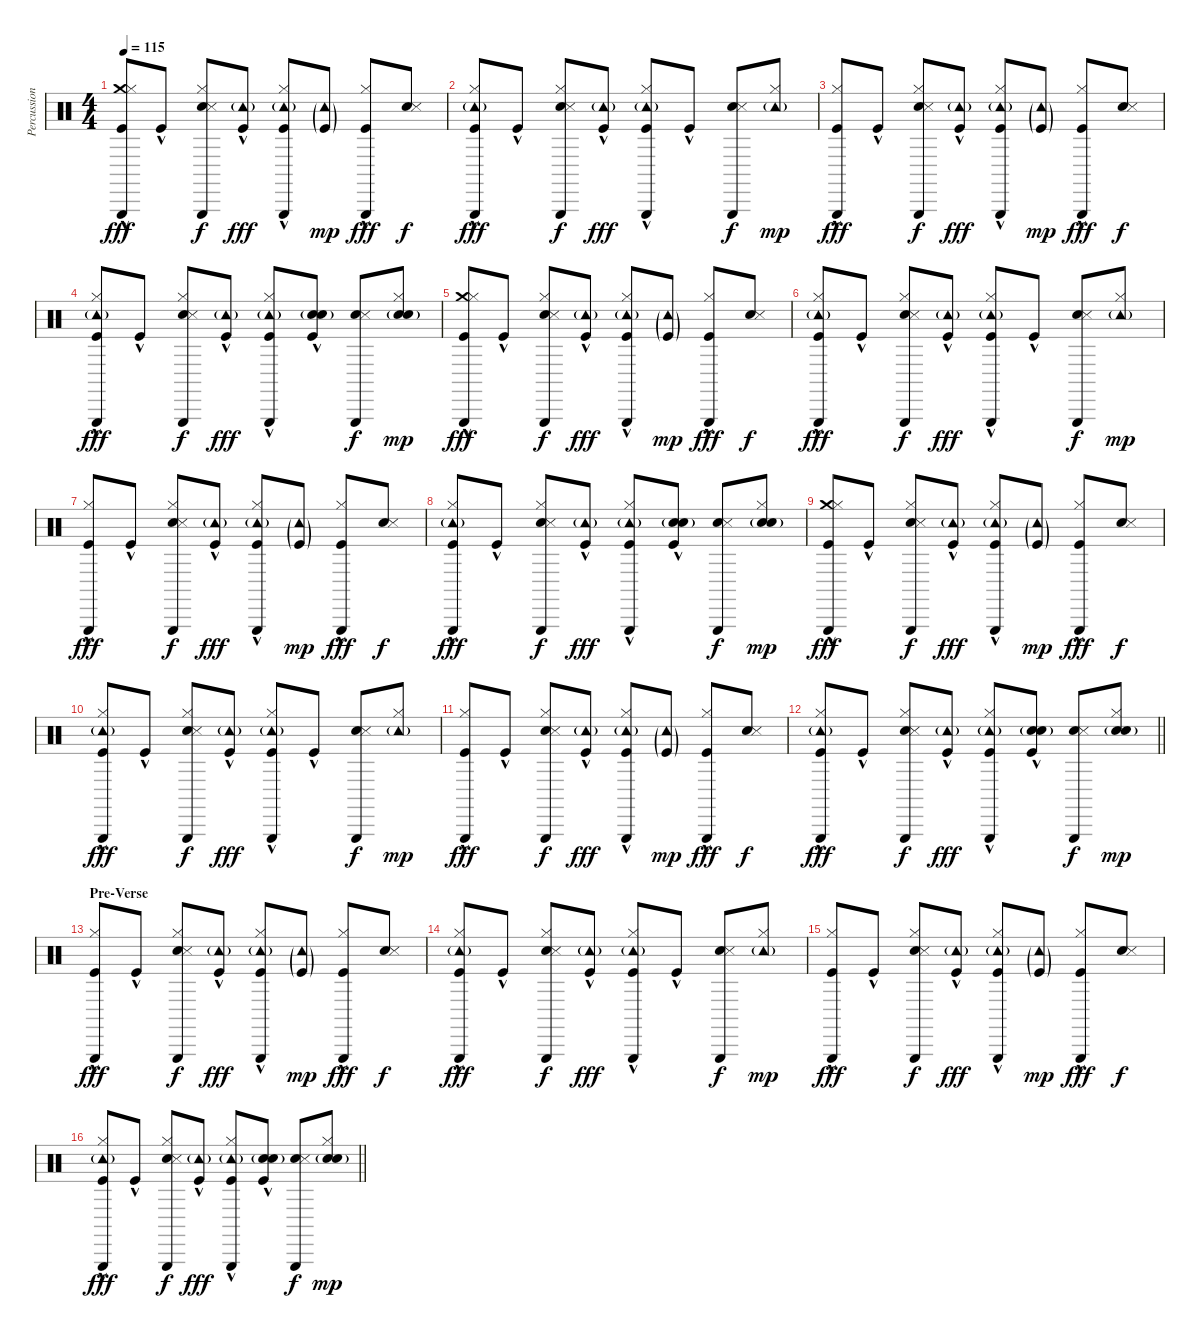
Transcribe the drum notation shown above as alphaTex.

\track ("Percussion" "Percussion") {instrument percussion}
\staff {score}
\articulation defaults
\ts (4 4)
\tempo 115
\clef neutral
\ks c
("Triangle (hit)" "Crash medium (hit)" "Hi-Hat (closed)" "Kick (hit)"{hac}).8{dy fff} "Kick (hit)"{hac}.8 ("Hand Clap (hit)" "Snare (side stick) 3" "Hi-Hat (closed)" "Triangle (hit)").8{dy f} ("Tambourine (hit)"{g} "Kick (hit)"{hac}).8{dy fff} ("Triangle (hit)" "Hi-Hat (closed)" "Tambourine (hit)"{g} "Kick (hit)"{hac}).8 ("Tambourine (hit)"{g} "Kick (hit)"{g}).8{dy mp} ("Triangle (hit)" "Hi-Hat (closed)" "Kick (hit)"{hac}).8{dy fff} ("Hand Clap (hit)" "Snare (side stick) 3").8{dy f} |
("Triangle (hit)" "Hi-Hat (closed)" "Tambourine (hit)"{g} "Kick (hit)"{hac}).8{dy fff} "Kick (hit)"{hac}.8 ("Hand Clap (hit)" "Snare (side stick) 3" "Hi-Hat (closed)" "Triangle (hit)").8{dy f} ("Tambourine (hit)"{g} "Kick (hit)"{hac}).8{dy fff} ("Triangle (hit)" "Hi-Hat (closed)" "Tambourine (hit)"{g} "Kick (hit)"{hac}).8 "Kick (hit)"{hac}.8 ("Hand Clap (hit)" "Snare (side stick) 3" "Triangle (hit)").8{dy f} ("Hi-Hat (closed)" "Tambourine (hit)"{g}).8{dy mp} |
("Triangle (hit)" "Hi-Hat (closed)" "Kick (hit)"{hac}).8{dy fff} "Kick (hit)"{hac}.8 ("Hand Clap (hit)" "Snare (side stick) 3" "Hi-Hat (closed)" "Triangle (hit)").8{dy f} ("Tambourine (hit)"{g} "Kick (hit)"{hac}).8{dy fff} ("Triangle (hit)" "Hi-Hat (closed)" "Tambourine (hit)"{g} "Kick (hit)"{hac}).8 ("Tambourine (hit)"{g} "Kick (hit)"{g}).8{dy mp} ("Triangle (hit)" "Hi-Hat (closed)" "Kick (hit)"{hac}).8{dy fff} ("Hand Clap (hit)" "Snare (side stick) 3").8{dy f} |
("Triangle (hit)" "Hi-Hat (closed)" "Tambourine (hit)"{g} "Kick (hit)"{hac}).8{dy fff} "Kick (hit)"{hac}.8 ("Hand Clap (hit)" "Snare (side stick) 3" "Hi-Hat (closed)" "Triangle (hit)").8{dy f} ("Tambourine (hit)"{g} "Kick (hit)"{hac}).8{dy fff} ("Triangle (hit)" "Hi-Hat (closed)" "Tambourine (hit)"{g} "Kick (hit)"{hac}).8 ("Snare (hit) 2" "Electric Snare (hit)"{g} "Kick (hit)"{hac}).8 ("Hand Clap (hit)" "Snare (side stick) 3" "Triangle (hit)").8{dy f} ("Hi-Hat (closed)" "Snare (hit) 2" "Electric Snare (hit)"{g}).8{dy mp} |
("Triangle (hit)" "Crash medium (hit)" "Hi-Hat (closed)" "Kick (hit)"{hac}).8{dy fff} "Kick (hit)"{hac}.8 ("Hand Clap (hit)" "Snare (side stick) 3" "Hi-Hat (closed)" "Triangle (hit)").8{dy f} ("Tambourine (hit)"{g} "Kick (hit)"{hac}).8{dy fff} ("Triangle (hit)" "Hi-Hat (closed)" "Tambourine (hit)"{g} "Kick (hit)"{hac}).8 ("Tambourine (hit)"{g} "Kick (hit)"{g}).8{dy mp} ("Triangle (hit)" "Hi-Hat (closed)" "Kick (hit)"{hac}).8{dy fff} ("Hand Clap (hit)" "Snare (side stick) 3").8{dy f} |
("Triangle (hit)" "Hi-Hat (closed)" "Tambourine (hit)"{g} "Kick (hit)"{hac}).8{dy fff} "Kick (hit)"{hac}.8 ("Hand Clap (hit)" "Snare (side stick) 3" "Hi-Hat (closed)" "Triangle (hit)").8{dy f} ("Tambourine (hit)"{g} "Kick (hit)"{hac}).8{dy fff} ("Triangle (hit)" "Hi-Hat (closed)" "Tambourine (hit)"{g} "Kick (hit)"{hac}).8 "Kick (hit)"{hac}.8 ("Hand Clap (hit)" "Snare (side stick) 3" "Triangle (hit)").8{dy f} ("Hi-Hat (closed)" "Tambourine (hit)"{g}).8{dy mp} |
("Triangle (hit)" "Hi-Hat (closed)" "Kick (hit)"{hac}).8{dy fff} "Kick (hit)"{hac}.8 ("Hand Clap (hit)" "Snare (side stick) 3" "Hi-Hat (closed)" "Triangle (hit)").8{dy f} ("Tambourine (hit)"{g} "Kick (hit)"{hac}).8{dy fff} ("Triangle (hit)" "Hi-Hat (closed)" "Tambourine (hit)"{g} "Kick (hit)"{hac}).8 ("Tambourine (hit)"{g} "Kick (hit)"{g}).8{dy mp} ("Triangle (hit)" "Hi-Hat (closed)" "Kick (hit)"{hac}).8{dy fff} ("Hand Clap (hit)" "Snare (side stick) 3").8{dy f} |
("Triangle (hit)" "Hi-Hat (closed)" "Tambourine (hit)"{g} "Kick (hit)"{hac}).8{dy fff} "Kick (hit)"{hac}.8 ("Hand Clap (hit)" "Snare (side stick) 3" "Hi-Hat (closed)" "Triangle (hit)").8{dy f} ("Tambourine (hit)"{g} "Kick (hit)"{hac}).8{dy fff} ("Triangle (hit)" "Hi-Hat (closed)" "Tambourine (hit)"{g} "Kick (hit)"{hac}).8 ("Snare (hit) 2" "Electric Snare (hit)"{g} "Kick (hit)"{hac}).8 ("Hand Clap (hit)" "Snare (side stick) 3" "Triangle (hit)").8{dy f} ("Hi-Hat (closed)" "Snare (hit) 2" "Electric Snare (hit)"{g}).8{dy mp} |
("Triangle (hit)" "Crash medium (hit)" "Hi-Hat (closed)" "Kick (hit)"{hac}).8{dy fff} "Kick (hit)"{hac}.8 ("Hand Clap (hit)" "Snare (side stick) 3" "Hi-Hat (closed)" "Triangle (hit)").8{dy f} ("Tambourine (hit)"{g} "Kick (hit)"{hac}).8{dy fff} ("Triangle (hit)" "Hi-Hat (closed)" "Tambourine (hit)"{g} "Kick (hit)"{hac}).8 ("Tambourine (hit)"{g} "Kick (hit)"{g}).8{dy mp} ("Triangle (hit)" "Hi-Hat (closed)" "Kick (hit)"{hac}).8{dy fff} ("Hand Clap (hit)" "Snare (side stick) 3").8{dy f} |
("Triangle (hit)" "Hi-Hat (closed)" "Tambourine (hit)"{g} "Kick (hit)"{hac}).8{dy fff} "Kick (hit)"{hac}.8 ("Hand Clap (hit)" "Snare (side stick) 3" "Hi-Hat (closed)" "Triangle (hit)").8{dy f} ("Tambourine (hit)"{g} "Kick (hit)"{hac}).8{dy fff} ("Triangle (hit)" "Hi-Hat (closed)" "Tambourine (hit)"{g} "Kick (hit)"{hac}).8 "Kick (hit)"{hac}.8 ("Hand Clap (hit)" "Snare (side stick) 3" "Triangle (hit)").8{dy f} ("Hi-Hat (closed)" "Tambourine (hit)"{g}).8{dy mp} |
("Triangle (hit)" "Hi-Hat (closed)" "Kick (hit)"{hac}).8{dy fff} "Kick (hit)"{hac}.8 ("Hand Clap (hit)" "Snare (side stick) 3" "Hi-Hat (closed)" "Triangle (hit)").8{dy f} ("Tambourine (hit)"{g} "Kick (hit)"{hac}).8{dy fff} ("Triangle (hit)" "Hi-Hat (closed)" "Tambourine (hit)"{g} "Kick (hit)"{hac}).8 ("Tambourine (hit)"{g} "Kick (hit)"{g}).8{dy mp} ("Triangle (hit)" "Hi-Hat (closed)" "Kick (hit)"{hac}).8{dy fff} ("Hand Clap (hit)" "Snare (side stick) 3").8{dy f} |
\barLineRight lightlight
("Triangle (hit)" "Hi-Hat (closed)" "Tambourine (hit)"{g} "Kick (hit)"{hac}).8{dy fff} "Kick (hit)"{hac}.8 ("Hand Clap (hit)" "Snare (side stick) 3" "Hi-Hat (closed)" "Triangle (hit)").8{dy f} ("Tambourine (hit)"{g} "Kick (hit)"{hac}).8{dy fff} ("Triangle (hit)" "Hi-Hat (closed)" "Tambourine (hit)"{g} "Kick (hit)"{hac}).8 ("Snare (hit) 2" "Electric Snare (hit)"{g} "Kick (hit)"{hac}).8 ("Hand Clap (hit)" "Snare (side stick) 3" "Triangle (hit)").8{dy f} ("Hi-Hat (closed)" "Snare (hit) 2" "Electric Snare (hit)"{g}).8{dy mp} |
\section ("" "Pre-Verse")
("Triangle (hit)" "Hi-Hat (closed)" "Kick (hit)"{hac}).8{dy fff} "Kick (hit)"{hac}.8 ("Hand Clap (hit)" "Snare (side stick) 3" "Hi-Hat (closed)" "Triangle (hit)").8{dy f} ("Tambourine (hit)"{g} "Kick (hit)"{hac}).8{dy fff} ("Triangle (hit)" "Hi-Hat (closed)" "Tambourine (hit)"{g} "Kick (hit)"{hac}).8 ("Tambourine (hit)"{g} "Kick (hit)"{g}).8{dy mp} ("Triangle (hit)" "Hi-Hat (closed)" "Kick (hit)"{hac}).8{dy fff} ("Hand Clap (hit)" "Snare (side stick) 3").8{dy f} |
("Triangle (hit)" "Hi-Hat (closed)" "Tambourine (hit)"{g} "Kick (hit)"{hac}).8{dy fff} "Kick (hit)"{hac}.8 ("Hand Clap (hit)" "Snare (side stick) 3" "Hi-Hat (closed)" "Triangle (hit)").8{dy f} ("Tambourine (hit)"{g} "Kick (hit)"{hac}).8{dy fff} ("Triangle (hit)" "Hi-Hat (closed)" "Tambourine (hit)"{g} "Kick (hit)"{hac}).8 "Kick (hit)"{hac}.8 ("Hand Clap (hit)" "Snare (side stick) 3" "Triangle (hit)").8{dy f} ("Hi-Hat (closed)" "Tambourine (hit)"{g}).8{dy mp} |
("Triangle (hit)" "Hi-Hat (closed)" "Kick (hit)"{hac}).8{dy fff} "Kick (hit)"{hac}.8 ("Hand Clap (hit)" "Snare (side stick) 3" "Hi-Hat (closed)" "Triangle (hit)").8{dy f} ("Tambourine (hit)"{g} "Kick (hit)"{hac}).8{dy fff} ("Triangle (hit)" "Hi-Hat (closed)" "Tambourine (hit)"{g} "Kick (hit)"{hac}).8 ("Tambourine (hit)"{g} "Kick (hit)"{g}).8{dy mp} ("Triangle (hit)" "Hi-Hat (closed)" "Kick (hit)"{hac}).8{dy fff} ("Hand Clap (hit)" "Snare (side stick) 3").8{dy f} |
\barLineRight lightlight
("Triangle (hit)" "Hi-Hat (closed)" "Tambourine (hit)"{g} "Kick (hit)"{hac}).8{dy fff} "Kick (hit)"{hac}.8 ("Hand Clap (hit)" "Snare (side stick) 3" "Hi-Hat (closed)" "Triangle (hit)").8{dy f} ("Tambourine (hit)"{g} "Kick (hit)"{hac}).8{dy fff} ("Triangle (hit)" "Hi-Hat (closed)" "Tambourine (hit)"{g} "Kick (hit)"{hac}).8 ("Snare (hit) 2" "Electric Snare (hit)"{g} "Kick (hit)"{hac}).8 ("Hand Clap (hit)" "Snare (side stick) 3" "Triangle (hit)").8{dy f} ("Hi-Hat (closed)" "Snare (hit) 2" "Electric Snare (hit)"{g}).8{dy mp}
